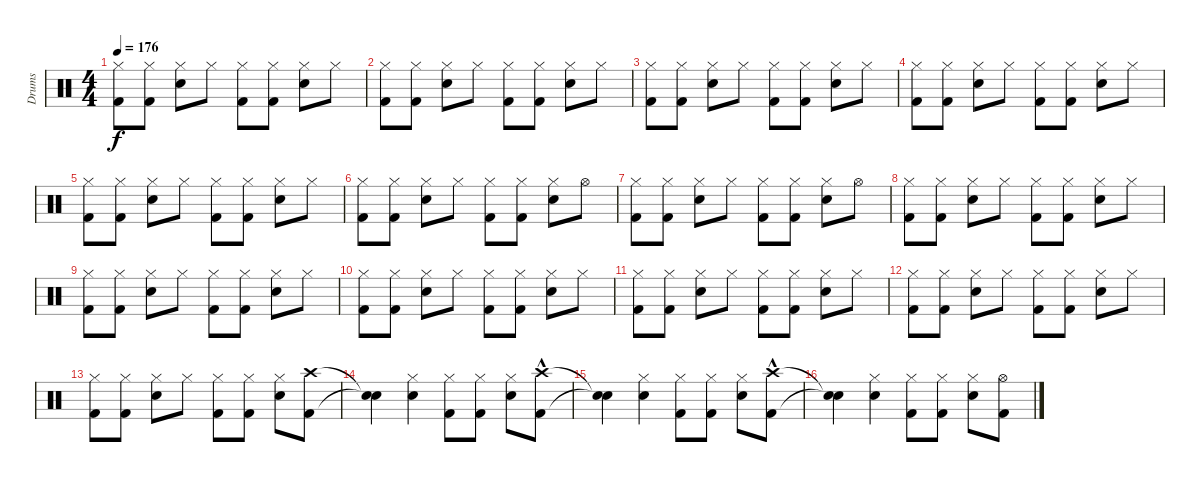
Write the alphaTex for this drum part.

\track ("Drums" "Drums") {instrument percussion}
\staff {score}
\articulation defaults
\ts (4 4)
\tempo 176
\clef neutral
\ks c
("Hi-Hat (closed)" "Kick (hit) 2").8{dy f} ("Hi-Hat (closed)" "Kick (hit) 2").8 ("Hi-Hat (closed)" "Snare (hit) 2").8 "Hi-Hat (closed)".8 ("Hi-Hat (closed)" "Kick (hit) 2").8 ("Hi-Hat (closed)" "Kick (hit) 2").8 ("Hi-Hat (closed)" "Snare (hit) 2").8 "Hi-Hat (closed)".8 |
("Hi-Hat (closed)" "Kick (hit) 2").8 ("Hi-Hat (closed)" "Kick (hit) 2").8 ("Hi-Hat (closed)" "Snare (hit) 2").8 "Hi-Hat (closed)".8 ("Hi-Hat (closed)" "Kick (hit) 2").8 ("Hi-Hat (closed)" "Kick (hit) 2").8 ("Hi-Hat (closed)" "Snare (hit) 2").8 "Hi-Hat (closed)".8 |
("Hi-Hat (closed)" "Kick (hit) 2").8 ("Hi-Hat (closed)" "Kick (hit) 2").8 ("Hi-Hat (closed)" "Snare (hit) 2").8 "Hi-Hat (closed)".8 ("Hi-Hat (closed)" "Kick (hit) 2").8 ("Hi-Hat (closed)" "Kick (hit) 2").8 ("Hi-Hat (closed)" "Snare (hit) 2").8 "Hi-Hat (closed)".8 |
("Hi-Hat (closed)" "Kick (hit) 2").8 ("Hi-Hat (closed)" "Kick (hit) 2").8 ("Hi-Hat (closed)" "Snare (hit) 2").8 "Hi-Hat (closed)".8 ("Hi-Hat (closed)" "Kick (hit) 2").8 ("Hi-Hat (closed)" "Kick (hit) 2").8 ("Hi-Hat (closed)" "Snare (hit) 2").8 "Hi-Hat (closed)".8 |
("Hi-Hat (closed)" "Kick (hit) 2").8 ("Hi-Hat (closed)" "Kick (hit) 2").8 ("Hi-Hat (closed)" "Snare (hit) 2").8 "Hi-Hat (closed)".8 ("Hi-Hat (closed)" "Kick (hit) 2").8 ("Hi-Hat (closed)" "Kick (hit) 2").8 ("Hi-Hat (closed)" "Snare (hit) 2").8 "Hi-Hat (closed)".8 |
("Hi-Hat (closed)" "Kick (hit) 2").8 ("Hi-Hat (closed)" "Kick (hit) 2").8 ("Hi-Hat (closed)" "Snare (hit) 2").8 "Hi-Hat (closed)".8 ("Hi-Hat (closed)" "Kick (hit) 2").8 ("Hi-Hat (closed)" "Kick (hit) 2").8 ("Hi-Hat (closed)" "Snare (hit) 2").8 "Hi-Hat (open)".8 |
("Hi-Hat (closed)" "Kick (hit) 2").8 ("Hi-Hat (closed)" "Kick (hit) 2").8 ("Hi-Hat (closed)" "Snare (hit) 2").8 "Hi-Hat (closed)".8 ("Hi-Hat (closed)" "Kick (hit) 2").8 ("Hi-Hat (closed)" "Kick (hit) 2").8 ("Hi-Hat (closed)" "Snare (hit) 2").8 "Hi-Hat (open)".8 |
("Hi-Hat (closed)" "Kick (hit) 2").8 ("Hi-Hat (closed)" "Kick (hit) 2").8 ("Hi-Hat (closed)" "Snare (hit) 2").8 "Hi-Hat (closed)".8 ("Hi-Hat (closed)" "Kick (hit) 2").8 ("Hi-Hat (closed)" "Kick (hit) 2").8 ("Hi-Hat (closed)" "Snare (hit) 2").8 "Hi-Hat (closed)".8 |
("Hi-Hat (closed)" "Kick (hit) 2").8 ("Hi-Hat (closed)" "Kick (hit) 2").8 ("Hi-Hat (closed)" "Snare (hit) 2").8 "Hi-Hat (closed)".8 ("Hi-Hat (closed)" "Kick (hit) 2").8 ("Hi-Hat (closed)" "Kick (hit) 2").8 ("Hi-Hat (closed)" "Snare (hit) 2").8 "Hi-Hat (closed)".8 |
("Hi-Hat (closed)" "Kick (hit) 2").8 ("Hi-Hat (closed)" "Kick (hit) 2").8 ("Hi-Hat (closed)" "Snare (hit) 2").8 "Hi-Hat (closed)".8 ("Hi-Hat (closed)" "Kick (hit) 2").8 ("Hi-Hat (closed)" "Kick (hit) 2").8 ("Hi-Hat (closed)" "Snare (hit) 2").8 "Hi-Hat (closed)".8 |
("Hi-Hat (closed)" "Kick (hit) 2").8 ("Hi-Hat (closed)" "Kick (hit) 2").8 ("Hi-Hat (closed)" "Snare (hit) 2").8 "Hi-Hat (closed)".8 ("Hi-Hat (closed)" "Kick (hit) 2").8 ("Hi-Hat (closed)" "Kick (hit) 2").8 ("Hi-Hat (closed)" "Snare (hit) 2").8 "Hi-Hat (closed)".8 |
("Hi-Hat (closed)" "Kick (hit) 2").8 ("Hi-Hat (closed)" "Kick (hit) 2").8 ("Hi-Hat (closed)" "Snare (hit) 2").8 "Hi-Hat (closed)".8 ("Hi-Hat (closed)" "Kick (hit) 2").8 ("Hi-Hat (closed)" "Kick (hit) 2").8 ("Hi-Hat (closed)" "Snare (hit) 2").8 "Hi-Hat (closed)".8 |
("Hi-Hat (closed)" "Kick (hit) 2").8 ("Hi-Hat (closed)" "Kick (hit) 2").8 ("Hi-Hat (closed)" "Snare (hit) 2").8 "Hi-Hat (closed)".8 ("Hi-Hat (closed)" "Kick (hit) 2").8 ("Hi-Hat (closed)" "Kick (hit) 2").8 ("Hi-Hat (closed)" "Snare (hit) 2").8 ("Crash high (hit)" "Kick (hit) 2").8 |
("Snare (hit)"{t} "Snare (hit)"{t}).4 ("Hi-Hat (closed)" "Snare (hit) 2").4 ("Hi-Hat (closed)" "Kick (hit) 2").8 ("Hi-Hat (closed)" "Kick (hit) 2").8 ("Hi-Hat (closed)" "Snare (hit) 2").8 ("Crash high (hit)"{hac} "Kick (hit) 2").8 |
("Snare (hit)"{t} "Snare (hit)"{t}).4 ("Hi-Hat (closed)" "Snare (hit) 2").4 ("Hi-Hat (closed)" "Kick (hit) 2").8 ("Hi-Hat (closed)" "Kick (hit) 2").8 ("Hi-Hat (closed)" "Snare (hit) 2").8 ("Crash high (hit)"{hac} "Kick (hit) 2").8 |
("Snare (hit)"{t} "Snare (hit)"{t}).4 ("Hi-Hat (closed)" "Snare (hit) 2").4 ("Hi-Hat (closed)" "Kick (hit) 2").8 ("Hi-Hat (closed)" "Kick (hit) 2").8 ("Hi-Hat (closed)" "Snare (hit) 2").8 ("Hi-Hat (open)" "Kick (hit) 2").8
